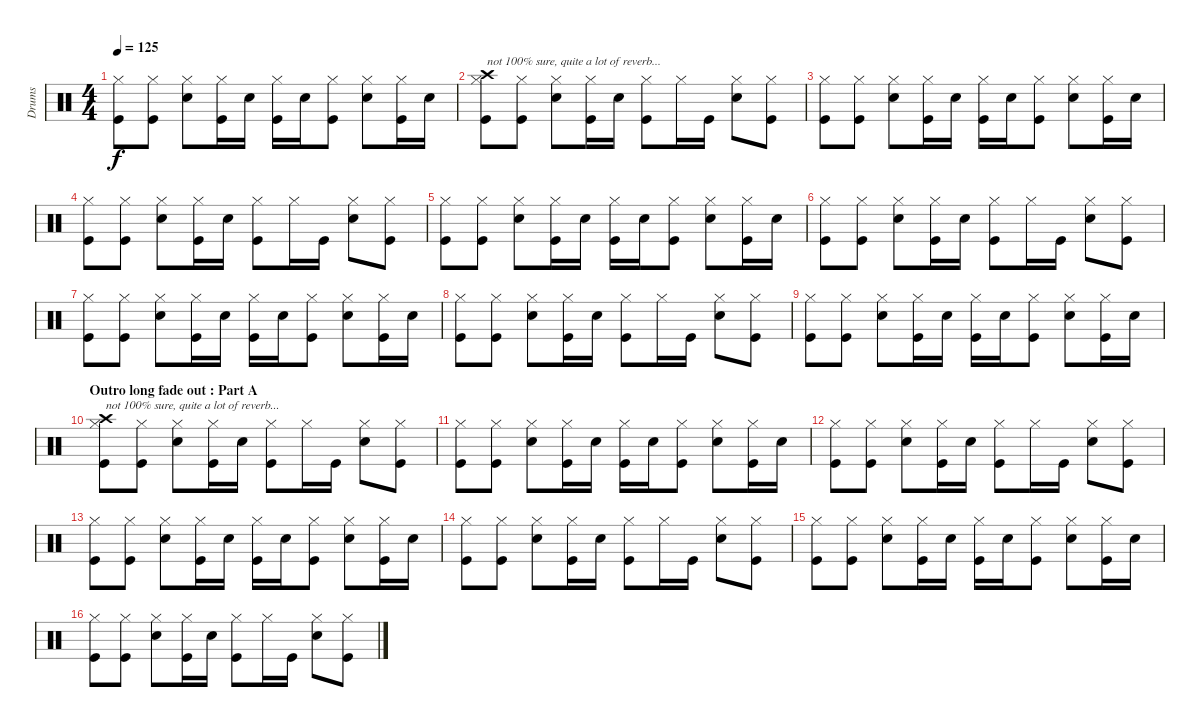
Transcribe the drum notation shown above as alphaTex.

\track ("Drums" "Drums") {instrument percussion}
\staff {score}
\articulation defaults
\ts (4 4)
\tempo 125
\clef neutral
\ks c
("Hi-Hat (closed)" "Kick (hit)").8{dy f} ("Hi-Hat (closed)" "Kick (hit)").8 ("Hi-Hat (closed)" "Electric Snare (hit)").8 ("Hi-Hat (closed)" "Kick (hit)").16 "Electric Snare (hit)".16 ("Hi-Hat (closed)" "Kick (hit)").16 "Electric Snare (hit)".16 ("Hi-Hat (closed)" "Kick (hit)").8 ("Hi-Hat (closed)" "Electric Snare (hit)").8 ("Hi-Hat (closed)" "Kick (hit)").16 "Electric Snare (hit)".16 |
("Hi-Hat (closed)" "Crash high (hit)" "Kick (hit)").8{txt "not 100% sure, quite a lot of reverb..."} ("Hi-Hat (closed)" "Kick (hit)").8 ("Hi-Hat (closed)" "Electric Snare (hit)").8 ("Hi-Hat (closed)" "Kick (hit)").16 "Electric Snare (hit)".16 ("Hi-Hat (closed)" "Kick (hit)").8 "Hi-Hat (closed)".16 "Kick (hit)".16 ("Hi-Hat (closed)" "Electric Snare (hit)").8 ("Hi-Hat (closed)" "Kick (hit)").8 |
("Hi-Hat (closed)" "Kick (hit)").8 ("Hi-Hat (closed)" "Kick (hit)").8 ("Hi-Hat (closed)" "Electric Snare (hit)").8 ("Hi-Hat (closed)" "Kick (hit)").16 "Electric Snare (hit)".16 ("Hi-Hat (closed)" "Kick (hit)").16 "Electric Snare (hit)".16 ("Hi-Hat (closed)" "Kick (hit)").8 ("Hi-Hat (closed)" "Electric Snare (hit)").8 ("Hi-Hat (closed)" "Kick (hit)").16 "Electric Snare (hit)".16 |
("Hi-Hat (closed)" "Kick (hit)").8 ("Hi-Hat (closed)" "Kick (hit)").8 ("Hi-Hat (closed)" "Electric Snare (hit)").8 ("Hi-Hat (closed)" "Kick (hit)").16 "Electric Snare (hit)".16 ("Hi-Hat (closed)" "Kick (hit)").8 "Hi-Hat (closed)".16 "Kick (hit)".16 ("Hi-Hat (closed)" "Electric Snare (hit)").8 ("Hi-Hat (closed)" "Kick (hit)").8 |
("Hi-Hat (closed)" "Kick (hit)").8 ("Hi-Hat (closed)" "Kick (hit)").8 ("Hi-Hat (closed)" "Electric Snare (hit)").8 ("Hi-Hat (closed)" "Kick (hit)").16 "Electric Snare (hit)".16 ("Hi-Hat (closed)" "Kick (hit)").16 "Electric Snare (hit)".16 ("Hi-Hat (closed)" "Kick (hit)").8 ("Hi-Hat (closed)" "Electric Snare (hit)").8 ("Hi-Hat (closed)" "Kick (hit)").16 "Electric Snare (hit)".16 |
("Hi-Hat (closed)" "Kick (hit)").8 ("Hi-Hat (closed)" "Kick (hit)").8 ("Hi-Hat (closed)" "Electric Snare (hit)").8 ("Hi-Hat (closed)" "Kick (hit)").16 "Electric Snare (hit)".16 ("Hi-Hat (closed)" "Kick (hit)").8 "Hi-Hat (closed)".16 "Kick (hit)".16 ("Hi-Hat (closed)" "Electric Snare (hit)").8 ("Hi-Hat (closed)" "Kick (hit)").8 |
("Hi-Hat (closed)" "Kick (hit)").8 ("Hi-Hat (closed)" "Kick (hit)").8 ("Hi-Hat (closed)" "Electric Snare (hit)").8 ("Hi-Hat (closed)" "Kick (hit)").16 "Electric Snare (hit)".16 ("Hi-Hat (closed)" "Kick (hit)").16 "Electric Snare (hit)".16 ("Hi-Hat (closed)" "Kick (hit)").8 ("Hi-Hat (closed)" "Electric Snare (hit)").8 ("Hi-Hat (closed)" "Kick (hit)").16 "Electric Snare (hit)".16 |
("Hi-Hat (closed)" "Kick (hit)").8 ("Hi-Hat (closed)" "Kick (hit)").8 ("Hi-Hat (closed)" "Electric Snare (hit)").8 ("Hi-Hat (closed)" "Kick (hit)").16 "Electric Snare (hit)".16 ("Hi-Hat (closed)" "Kick (hit)").8 "Hi-Hat (closed)".16 "Kick (hit)".16 ("Hi-Hat (closed)" "Electric Snare (hit)").8 ("Hi-Hat (closed)" "Kick (hit)").8 |
("Hi-Hat (closed)" "Kick (hit)").8 ("Hi-Hat (closed)" "Kick (hit)").8 ("Hi-Hat (closed)" "Electric Snare (hit)").8 ("Hi-Hat (closed)" "Kick (hit)").16 "Electric Snare (hit)".16 ("Hi-Hat (closed)" "Kick (hit)").16 "Electric Snare (hit)".16 ("Hi-Hat (closed)" "Kick (hit)").8 ("Hi-Hat (closed)" "Electric Snare (hit)").8 ("Hi-Hat (closed)" "Kick (hit)").16 "Electric Snare (hit)".16 |
\section ("" "Outro long fade out : Part A ")
("Hi-Hat (closed)" "Crash high (hit)" "Kick (hit)").8{txt "not 100% sure, quite a lot of reverb..."} ("Hi-Hat (closed)" "Kick (hit)").8 ("Hi-Hat (closed)" "Electric Snare (hit)").8 ("Hi-Hat (closed)" "Kick (hit)").16 "Electric Snare (hit)".16 ("Hi-Hat (closed)" "Kick (hit)").8 "Hi-Hat (closed)".16 "Kick (hit)".16 ("Hi-Hat (closed)" "Electric Snare (hit)").8 ("Hi-Hat (closed)" "Kick (hit)").8 |
("Hi-Hat (closed)" "Kick (hit)").8 ("Hi-Hat (closed)" "Kick (hit)").8 ("Hi-Hat (closed)" "Electric Snare (hit)").8 ("Hi-Hat (closed)" "Kick (hit)").16 "Electric Snare (hit)".16 ("Hi-Hat (closed)" "Kick (hit)").16 "Electric Snare (hit)".16 ("Hi-Hat (closed)" "Kick (hit)").8 ("Hi-Hat (closed)" "Electric Snare (hit)").8 ("Hi-Hat (closed)" "Kick (hit)").16 "Electric Snare (hit)".16 |
("Hi-Hat (closed)" "Kick (hit)").8 ("Hi-Hat (closed)" "Kick (hit)").8 ("Hi-Hat (closed)" "Electric Snare (hit)").8 ("Hi-Hat (closed)" "Kick (hit)").16 "Electric Snare (hit)".16 ("Hi-Hat (closed)" "Kick (hit)").8 "Hi-Hat (closed)".16 "Kick (hit)".16 ("Hi-Hat (closed)" "Electric Snare (hit)").8 ("Hi-Hat (closed)" "Kick (hit)").8 |
("Hi-Hat (closed)" "Kick (hit)").8 ("Hi-Hat (closed)" "Kick (hit)").8 ("Hi-Hat (closed)" "Electric Snare (hit)").8 ("Hi-Hat (closed)" "Kick (hit)").16 "Electric Snare (hit)".16 ("Hi-Hat (closed)" "Kick (hit)").16 "Electric Snare (hit)".16 ("Hi-Hat (closed)" "Kick (hit)").8 ("Hi-Hat (closed)" "Electric Snare (hit)").8 ("Hi-Hat (closed)" "Kick (hit)").16 "Electric Snare (hit)".16 |
("Hi-Hat (closed)" "Kick (hit)").8 ("Hi-Hat (closed)" "Kick (hit)").8 ("Hi-Hat (closed)" "Electric Snare (hit)").8 ("Hi-Hat (closed)" "Kick (hit)").16 "Electric Snare (hit)".16 ("Hi-Hat (closed)" "Kick (hit)").8 "Hi-Hat (closed)".16 "Kick (hit)".16 ("Hi-Hat (closed)" "Electric Snare (hit)").8 ("Hi-Hat (closed)" "Kick (hit)").8 |
("Hi-Hat (closed)" "Kick (hit)").8 ("Hi-Hat (closed)" "Kick (hit)").8 ("Hi-Hat (closed)" "Electric Snare (hit)").8 ("Hi-Hat (closed)" "Kick (hit)").16 "Electric Snare (hit)".16 ("Hi-Hat (closed)" "Kick (hit)").16 "Electric Snare (hit)".16 ("Hi-Hat (closed)" "Kick (hit)").8 ("Hi-Hat (closed)" "Electric Snare (hit)").8 ("Hi-Hat (closed)" "Kick (hit)").16 "Electric Snare (hit)".16 |
("Hi-Hat (closed)" "Kick (hit)").8 ("Hi-Hat (closed)" "Kick (hit)").8 ("Hi-Hat (closed)" "Electric Snare (hit)").8 ("Hi-Hat (closed)" "Kick (hit)").16 "Electric Snare (hit)".16 ("Hi-Hat (closed)" "Kick (hit)").8 "Hi-Hat (closed)".16 "Kick (hit)".16 ("Hi-Hat (closed)" "Electric Snare (hit)").8 ("Hi-Hat (closed)" "Kick (hit)").8
